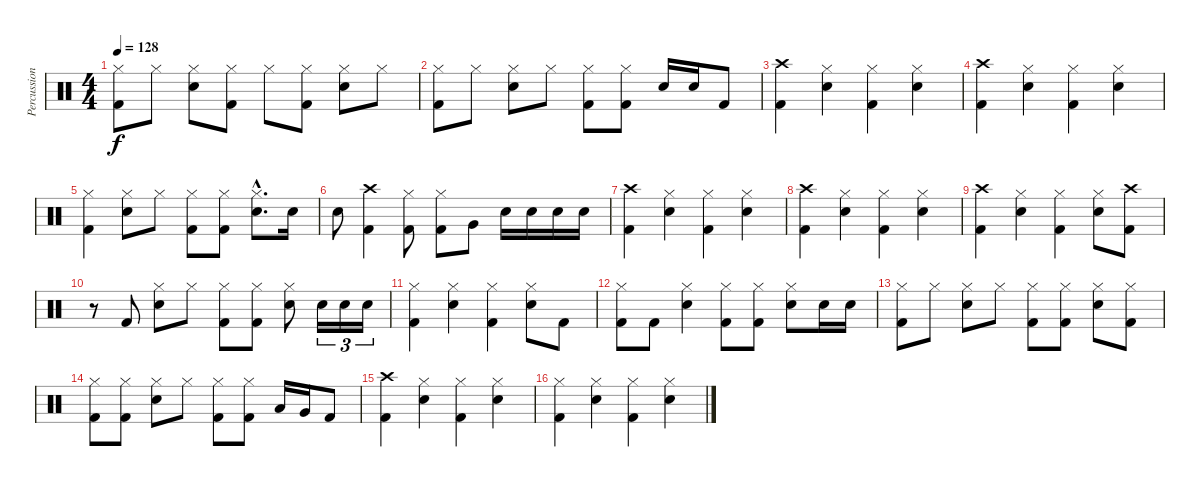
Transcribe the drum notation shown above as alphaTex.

\track ("Percussion" "Percussion") {instrument percussion}
\staff {score}
\articulation defaults
\ts (4 4)
\tempo 128
\clef neutral
\ks c
("Kick (hit) 2" "Hi-Hat (closed)").8{dy f} "Hi-Hat (closed)".8 ("Snare (hit) 2" "Hi-Hat (closed)").8 ("Kick (hit) 2" "Hi-Hat (closed)").8 "Hi-Hat (closed)".8 ("Kick (hit) 2" "Hi-Hat (closed)").8 ("Snare (hit) 2" "Hi-Hat (closed)").8 "Hi-Hat (closed)".8 |
("Kick (hit) 2" "Hi-Hat (closed)").8 "Hi-Hat (closed)".8 ("Snare (hit) 2" "Hi-Hat (closed)").8 "Hi-Hat (closed)".8 ("Kick (hit) 2" "Hi-Hat (closed)").8 ("Kick (hit) 2" "Hi-Hat (closed)").8 "Snare (hit) 2".16 "Snare (hit) 2".16 "Kick (hit) 2".8 |
("Kick (hit) 2" "Crash high (hit)").4 ("Snare (hit) 2" "Hi-Hat (closed)").4 ("Kick (hit) 2" "Hi-Hat (closed)").4 ("Snare (hit) 2" "Hi-Hat (closed)").4 |
("Kick (hit) 2" "Crash high (hit)").4 ("Snare (hit) 2" "Hi-Hat (closed)").4 ("Kick (hit) 2" "Hi-Hat (closed)").4 ("Snare (hit) 2" "Hi-Hat (closed)").4 |
("Kick (hit) 2" "Hi-Hat (closed)").4 ("Snare (hit) 2" "Hi-Hat (closed)").8 "Hi-Hat (closed)".8 ("Kick (hit) 2" "Hi-Hat (closed)").8 ("Kick (hit) 2" "Hi-Hat (closed)").8 ("Snare (hit) 2"{hac} "Hi-Hat (closed)"{hac}).8{d} "Snare (hit) 2".16 |
"Snare (hit) 2".8 ("Kick (hit) 2" "Crash high (hit)").4 ("Kick (hit) 2" "Hi-Hat (closed)").8 ("Kick (hit) 2" "Hi-Hat (closed)").8 "Very Low Tom (hit)".8 "Snare (hit) 2".16 "Snare (hit) 2".16 "Snare (hit) 2".16 "Snare (hit) 2".16 |
("Kick (hit) 2" "Crash high (hit)").4 ("Snare (hit) 2" "Hi-Hat (closed)").4 ("Kick (hit) 2" "Hi-Hat (closed)").4 ("Snare (hit) 2" "Hi-Hat (closed)").4 |
("Kick (hit) 2" "Crash high (hit)").4 ("Snare (hit) 2" "Hi-Hat (closed)").4 ("Kick (hit) 2" "Hi-Hat (closed)").4 ("Snare (hit) 2" "Hi-Hat (closed)").4 |
("Kick (hit) 2" "Crash high (hit)").4 ("Snare (hit) 2" "Hi-Hat (closed)").4 ("Kick (hit) 2" "Hi-Hat (closed)").4 ("Snare (hit) 2" "Hi-Hat (closed)").8 ("Kick (hit) 2" "Crash high (hit)").8 |
r.8 "Kick (hit) 2".8 ("Snare (hit) 2" "Hi-Hat (closed)").8 "Hi-Hat (closed)".8 ("Kick (hit) 2" "Hi-Hat (closed)").8 ("Kick (hit) 2" "Hi-Hat (closed)").8 ("Snare (hit) 2" "Hi-Hat (closed)").8 "Snare (hit) 2".16{tu (3 2)} "Snare (hit) 2".16{tu (3 2)} "Snare (hit) 2".16{tu (3 2)} |
("Kick (hit) 2" "Hi-Hat (closed)").4 ("Snare (hit) 2" "Hi-Hat (closed)").4 ("Kick (hit) 2" "Hi-Hat (closed)").4 ("Snare (hit) 2" "Hi-Hat (closed)").8 "Kick (hit) 2".8 |
("Kick (hit) 2" "Hi-Hat (closed)").8 "Kick (hit) 2".8 ("Snare (hit) 2" "Hi-Hat (closed)").4 ("Kick (hit) 2" "Hi-Hat (closed)").8 ("Kick (hit) 2" "Hi-Hat (closed)").8 ("Snare (hit) 2" "Hi-Hat (closed)").8 "Snare (hit) 2".16 "Snare (hit) 2".16 |
("Kick (hit) 2" "Hi-Hat (closed)").8 "Hi-Hat (closed)".8 ("Snare (hit) 2" "Hi-Hat (closed)").8 "Hi-Hat (closed)".8 ("Kick (hit) 2" "Hi-Hat (closed)").8 ("Kick (hit) 2" "Hi-Hat (closed)").8 ("Snare (hit) 2" "Hi-Hat (closed)").8 ("Kick (hit) 2" "Hi-Hat (closed)").8 |
("Kick (hit) 2" "Hi-Hat (closed)").8 ("Kick (hit) 2" "Hi-Hat (closed)").8 ("Snare (hit) 2" "Hi-Hat (closed)").8 "Hi-Hat (closed)".8 ("Kick (hit) 2" "Hi-Hat (closed)").8 ("Kick (hit) 2" "Hi-Hat (closed)").8 "Low Tom (hit)".16 "Very Low Tom (hit)".16 "Kick (hit) 2".8 |
("Kick (hit) 2" "Crash high (hit)").4 ("Snare (hit) 2" "Hi-Hat (closed)").4 ("Kick (hit) 2" "Hi-Hat (closed)").4 ("Snare (hit) 2" "Hi-Hat (closed)").4 |
("Kick (hit) 2" "Hi-Hat (closed)").4 ("Snare (hit) 2" "Hi-Hat (closed)").4 ("Kick (hit) 2" "Hi-Hat (closed)").4 ("Snare (hit) 2" "Hi-Hat (closed)").4
